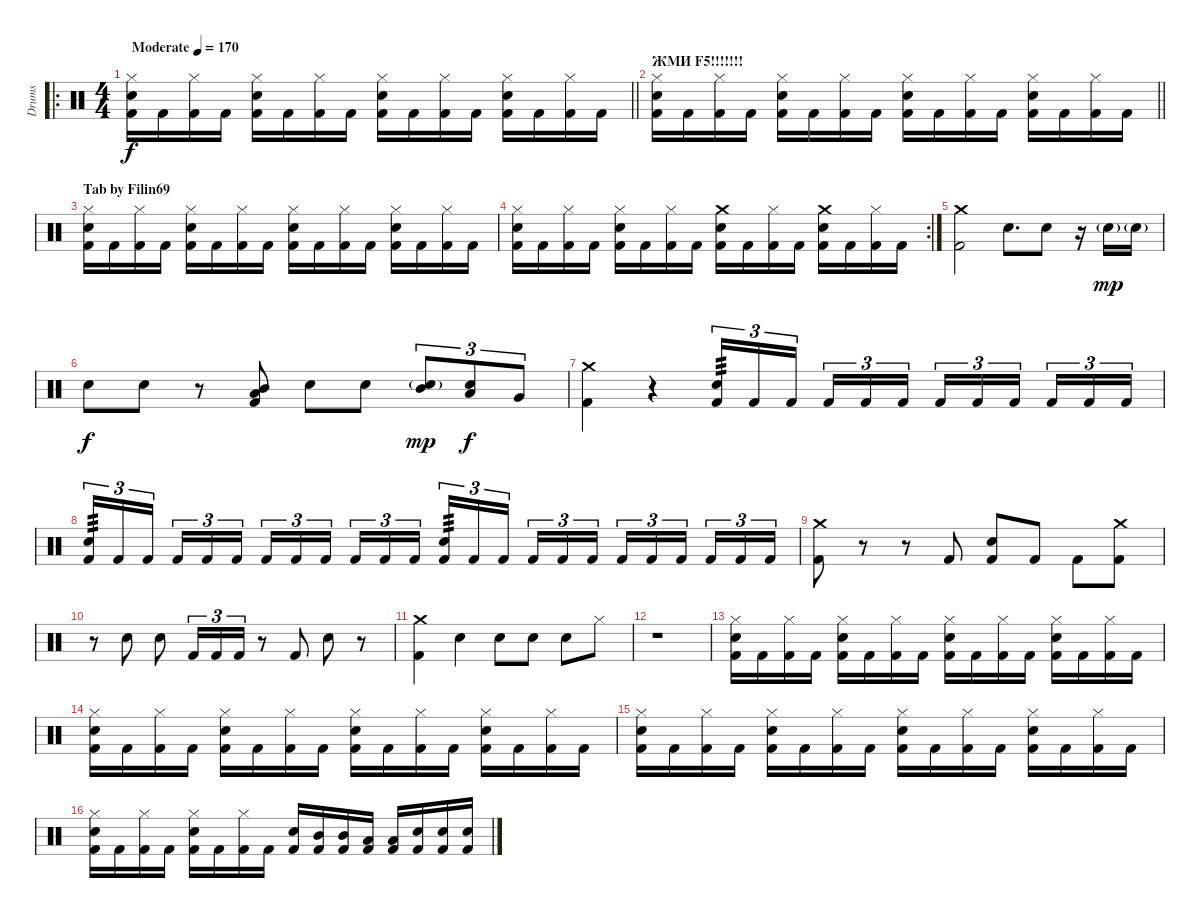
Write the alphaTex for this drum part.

\track ("Drums" "Drums") {instrument percussion}
\staff {score}
\articulation defaults
\ro
\ts (4 4)
\tempo (170 "Moderate")
\clef neutral
\barLineRight lightlight
\ks c
("Hi-Hat (closed)" "Snare (hit) 2" "Kick (hit) 2").16{dy f} "Kick (hit) 2".16 ("Hi-Hat (closed)" "Kick (hit) 2").16 "Kick (hit) 2".16 ("Hi-Hat (closed)" "Snare (hit) 2" "Kick (hit) 2").16 "Kick (hit) 2".16 ("Hi-Hat (closed)" "Kick (hit) 2").16 "Kick (hit) 2".16 ("Hi-Hat (closed)" "Snare (hit) 2" "Kick (hit) 2").16 "Kick (hit) 2".16 ("Hi-Hat (closed)" "Kick (hit) 2").16 "Kick (hit) 2".16 ("Hi-Hat (closed)" "Snare (hit) 2" "Kick (hit) 2").16 "Kick (hit) 2".16 ("Hi-Hat (closed)" "Kick (hit) 2").16 "Kick (hit) 2".16 |
\section ("" "ЖМИ F5!!!!!!!")
\barLineRight lightlight
("Hi-Hat (closed)" "Snare (hit) 2" "Kick (hit) 2").16 "Kick (hit) 2".16 ("Hi-Hat (closed)" "Kick (hit) 2").16 "Kick (hit) 2".16 ("Hi-Hat (closed)" "Snare (hit) 2" "Kick (hit) 2").16 "Kick (hit) 2".16 ("Hi-Hat (closed)" "Kick (hit) 2").16 "Kick (hit) 2".16 ("Hi-Hat (closed)" "Snare (hit) 2" "Kick (hit) 2").16 "Kick (hit) 2".16 ("Hi-Hat (closed)" "Kick (hit) 2").16 "Kick (hit) 2".16 ("Hi-Hat (closed)" "Snare (hit) 2" "Kick (hit) 2").16 "Kick (hit) 2".16 ("Hi-Hat (closed)" "Kick (hit) 2").16 "Kick (hit) 2".16 |
\section ("" "Tab by Filin69")
("Hi-Hat (closed)" "Snare (hit) 2" "Kick (hit) 2").16 "Kick (hit) 2".16 ("Hi-Hat (closed)" "Kick (hit) 2").16 "Kick (hit) 2".16 ("Hi-Hat (closed)" "Snare (hit) 2" "Kick (hit) 2").16 "Kick (hit) 2".16 ("Hi-Hat (closed)" "Kick (hit) 2").16 "Kick (hit) 2".16 ("Hi-Hat (closed)" "Snare (hit) 2" "Kick (hit) 2").16 "Kick (hit) 2".16 ("Hi-Hat (closed)" "Kick (hit) 2").16 "Kick (hit) 2".16 ("Hi-Hat (closed)" "Snare (hit) 2" "Kick (hit) 2").16 "Kick (hit) 2".16 ("Hi-Hat (closed)" "Kick (hit) 2").16 "Kick (hit) 2".16 |
\rc 2
("Hi-Hat (closed)" "Snare (hit) 2" "Kick (hit) 2").16 "Kick (hit) 2".16 ("Hi-Hat (closed)" "Kick (hit) 2").16 "Kick (hit) 2".16 ("Hi-Hat (closed)" "Snare (hit) 2" "Kick (hit) 2").16 "Kick (hit) 2".16 ("Hi-Hat (closed)" "Kick (hit) 2").16 "Kick (hit) 2".16 ("Crash medium (hit)" "Snare (hit) 2" "Kick (hit) 2").16 "Kick (hit) 2".16 ("Hi-Hat (closed)" "Kick (hit) 2").16 "Kick (hit) 2".16 ("Crash medium (hit)" "Snare (hit) 2" "Kick (hit) 2").16 "Kick (hit) 2".16 ("Hi-Hat (closed)" "Kick (hit) 2").16 "Kick (hit) 2".16 |
("Crash medium (hit)" "Kick (hit) 2").2 "Snare (hit) 2".8{d} "Snare (hit) 2".8 r.16 "Snare (hit) 2"{g}.16{dy mp} "Snare (hit) 2"{g}.16 |
"Snare (hit) 2".8{dy f} "Snare (hit) 2".8 r.8 ("Mid Tom (hit)" "Low Tom (hit)" "Kick (hit) 2").8 "Snare (hit) 2".8 "Snare (hit) 2".8 ("Mid Tom (hit)" "Snare (hit) 2"{g}).8{tu (3 2) dy mp} ("Low Tom (hit)" "Snare (hit) 2").8{tu (3 2) dy f} "Very Low Tom (hit)".8{tu (3 2)} |
("Crash medium (hit)" "Kick (hit) 2").4 r.4 ("Snare (hit) 2" "Kick (hit) 2").16{tu (3 2) tp 3} "Kick (hit) 2".16{tu (3 2)} "Kick (hit) 2".16{tu (3 2) beam splitsecondary} "Kick (hit) 2".16{tu (3 2)} "Kick (hit) 2".16{tu (3 2)} "Kick (hit) 2".16{tu (3 2)} "Kick (hit) 2".16{tu (3 2)} "Kick (hit) 2".16{tu (3 2)} "Kick (hit) 2".16{tu (3 2) beam splitsecondary} "Kick (hit) 2".16{tu (3 2)} "Kick (hit) 2".16{tu (3 2)} "Kick (hit) 2".16{tu (3 2)} |
("Snare (hit) 2" "Kick (hit) 2").16{tu (3 2) tp 3} "Kick (hit) 2".16{tu (3 2)} "Kick (hit) 2".16{tu (3 2) beam splitsecondary} "Kick (hit) 2".16{tu (3 2)} "Kick (hit) 2".16{tu (3 2)} "Kick (hit) 2".16{tu (3 2)} "Kick (hit) 2".16{tu (3 2)} "Kick (hit) 2".16{tu (3 2)} "Kick (hit) 2".16{tu (3 2) beam splitsecondary} "Kick (hit) 2".16{tu (3 2)} "Kick (hit) 2".16{tu (3 2)} "Kick (hit) 2".16{tu (3 2)} ("Snare (hit) 2" "Kick (hit) 2").16{tu (3 2) tp 3} "Kick (hit) 2".16{tu (3 2)} "Kick (hit) 2".16{tu (3 2) beam splitsecondary} "Kick (hit) 2".16{tu (3 2)} "Kick (hit) 2".16{tu (3 2)} "Kick (hit) 2".16{tu (3 2)} "Kick (hit) 2".16{tu (3 2)} "Kick (hit) 2".16{tu (3 2)} "Kick (hit) 2".16{tu (3 2) beam splitsecondary} "Kick (hit) 2".16{tu (3 2)} "Kick (hit) 2".16{tu (3 2)} "Kick (hit) 2".16{tu (3 2)} |
("Crash medium (hit)" "Kick (hit) 2").8 r.8 r.8 "Kick (hit) 2".8 ("Snare (hit) 2" "Kick (hit) 2").8 "Kick (hit) 2".8 "Kick (hit) 2".8 ("Crash medium (hit)" "Kick (hit) 2").8 |
r.8 "Snare (hit) 2".8 "Snare (hit) 2".8 "Kick (hit) 2".16{tu (3 2)} "Kick (hit) 2".16{tu (3 2)} "Kick (hit) 2".16{tu (3 2)} r.8 "Kick (hit) 2".8 "Snare (hit) 2".8 r.8 |
("Crash medium (hit)" "Kick (hit) 2").4 "Snare (hit) 2".4 "Snare (hit) 2".8 "Snare (hit) 2".8 "Snare (hit) 2".8 "Hi-Hat (closed)".8 |
r.1 |
("Hi-Hat (closed)" "Snare (hit) 2" "Kick (hit) 2").16 "Kick (hit) 2".16 ("Hi-Hat (closed)" "Kick (hit) 2").16 "Kick (hit) 2".16 ("Hi-Hat (closed)" "Snare (hit) 2" "Kick (hit) 2").16 "Kick (hit) 2".16 ("Hi-Hat (closed)" "Kick (hit) 2").16 "Kick (hit) 2".16 ("Hi-Hat (closed)" "Snare (hit) 2" "Kick (hit) 2").16 "Kick (hit) 2".16 ("Hi-Hat (closed)" "Kick (hit) 2").16 "Kick (hit) 2".16 ("Hi-Hat (closed)" "Snare (hit) 2" "Kick (hit) 2").16 "Kick (hit) 2".16 ("Hi-Hat (closed)" "Kick (hit) 2").16 "Kick (hit) 2".16 |
("Hi-Hat (closed)" "Snare (hit) 2" "Kick (hit) 2").16 "Kick (hit) 2".16 ("Hi-Hat (closed)" "Kick (hit) 2").16 "Kick (hit) 2".16 ("Hi-Hat (closed)" "Snare (hit) 2" "Kick (hit) 2").16 "Kick (hit) 2".16 ("Hi-Hat (closed)" "Kick (hit) 2").16 "Kick (hit) 2".16 ("Hi-Hat (closed)" "Snare (hit) 2" "Kick (hit) 2").16 "Kick (hit) 2".16 ("Hi-Hat (closed)" "Kick (hit) 2").16 "Kick (hit) 2".16 ("Hi-Hat (closed)" "Snare (hit) 2" "Kick (hit) 2").16 "Kick (hit) 2".16 ("Hi-Hat (closed)" "Kick (hit) 2").16 "Kick (hit) 2".16 |
("Hi-Hat (closed)" "Snare (hit) 2" "Kick (hit) 2").16 "Kick (hit) 2".16 ("Hi-Hat (closed)" "Kick (hit) 2").16 "Kick (hit) 2".16 ("Hi-Hat (closed)" "Snare (hit) 2" "Kick (hit) 2").16 "Kick (hit) 2".16 ("Hi-Hat (closed)" "Kick (hit) 2").16 "Kick (hit) 2".16 ("Hi-Hat (closed)" "Snare (hit) 2" "Kick (hit) 2").16 "Kick (hit) 2".16 ("Hi-Hat (closed)" "Kick (hit) 2").16 "Kick (hit) 2".16 ("Hi-Hat (closed)" "Snare (hit) 2" "Kick (hit) 2").16 "Kick (hit) 2".16 ("Hi-Hat (closed)" "Kick (hit) 2").16 "Kick (hit) 2".16 |
("Hi-Hat (closed)" "Snare (hit) 2" "Kick (hit) 2").16 "Kick (hit) 2".16 ("Hi-Hat (closed)" "Kick (hit) 2").16 "Kick (hit) 2".16 ("Hi-Hat (closed)" "Snare (hit) 2" "Kick (hit) 2").16 "Kick (hit) 2".16 ("Hi-Hat (closed)" "Kick (hit) 2").16 "Kick (hit) 2".16 ("Snare (hit) 2" "Kick (hit) 2").16 ("Mid Tom (hit)" "Kick (hit) 2").16 ("Mid Tom (hit)" "Kick (hit) 2").16 ("Low Tom (hit)" "Kick (hit) 2").16 ("Low Tom (hit)" "Kick (hit) 2").16 ("Snare (hit) 2" "Kick (hit) 2").16 ("Snare (hit) 2" "Kick (hit) 2").16 ("Snare (hit) 2" "Kick (hit) 2").16
